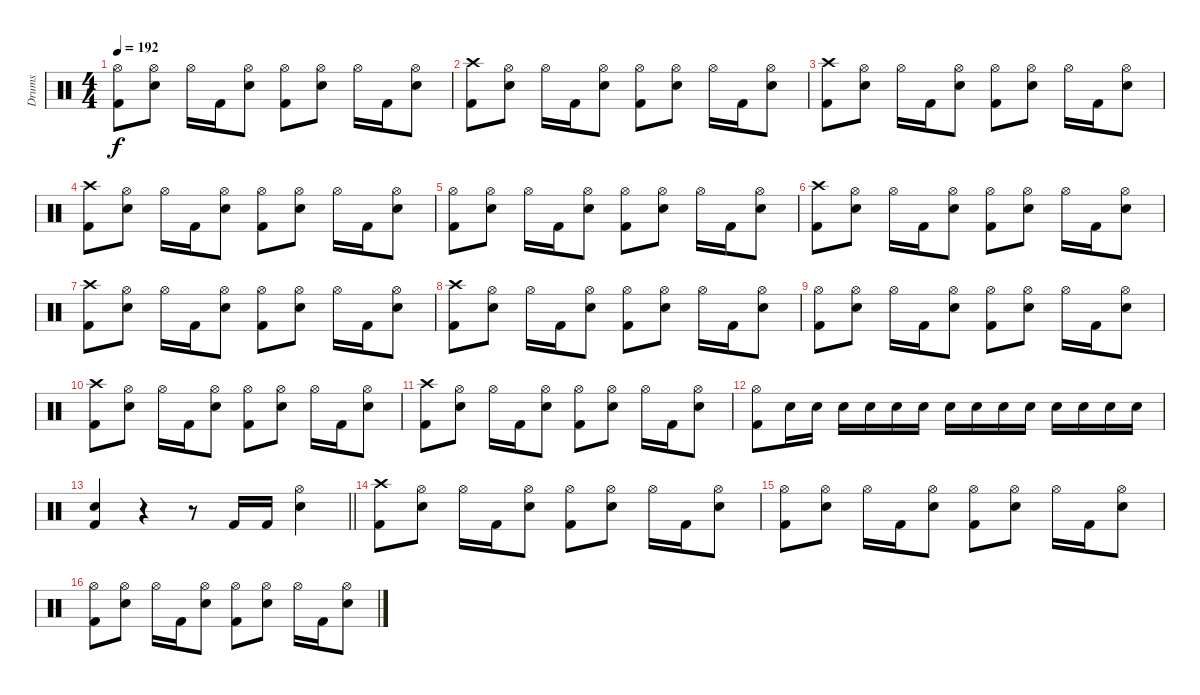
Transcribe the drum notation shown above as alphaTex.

\track ("Drums" "Drums") {instrument percussion}
\staff {score}
\articulation defaults
\ts (4 4)
\tempo 192
\clef neutral
\ks c
("Hi-Hat (open)" "Kick (hit) 2").8{dy f} ("Hi-Hat (open)" "Snare (hit) 2").8 "Hi-Hat (open)".16 "Kick (hit) 2".16 ("Hi-Hat (open)" "Snare (hit) 2").8 ("Hi-Hat (open)" "Kick (hit) 2").8 ("Hi-Hat (open)" "Snare (hit) 2").8 "Hi-Hat (open)".16 "Kick (hit) 2".16 ("Hi-Hat (open)" "Snare (hit) 2").8 |
("Crash high (hit)" "Kick (hit) 2").8 ("Hi-Hat (open)" "Snare (hit) 2").8 "Hi-Hat (open)".16 "Kick (hit) 2".16 ("Hi-Hat (open)" "Snare (hit) 2").8 ("Hi-Hat (open)" "Kick (hit) 2").8 ("Hi-Hat (open)" "Snare (hit) 2").8 "Hi-Hat (open)".16 "Kick (hit) 2".16 ("Hi-Hat (open)" "Snare (hit) 2").8 |
("Crash high (hit)" "Kick (hit) 2").8 ("Hi-Hat (open)" "Snare (hit) 2").8 "Hi-Hat (open)".16 "Kick (hit) 2".16 ("Hi-Hat (open)" "Snare (hit) 2").8 ("Hi-Hat (open)" "Kick (hit) 2").8 ("Hi-Hat (open)" "Snare (hit) 2").8 "Hi-Hat (open)".16 "Kick (hit) 2".16 ("Hi-Hat (open)" "Snare (hit) 2").8 |
("Crash high (hit)" "Kick (hit) 2").8 ("Hi-Hat (open)" "Snare (hit) 2").8 "Hi-Hat (open)".16 "Kick (hit) 2".16 ("Hi-Hat (open)" "Snare (hit) 2").8 ("Hi-Hat (open)" "Kick (hit) 2").8 ("Hi-Hat (open)" "Snare (hit) 2").8 "Hi-Hat (open)".16 "Kick (hit) 2".16 ("Hi-Hat (open)" "Snare (hit) 2").8 |
("Hi-Hat (open)" "Kick (hit) 2").8 ("Hi-Hat (open)" "Snare (hit) 2").8 "Hi-Hat (open)".16 "Kick (hit) 2".16 ("Hi-Hat (open)" "Snare (hit) 2").8 ("Hi-Hat (open)" "Kick (hit) 2").8 ("Hi-Hat (open)" "Snare (hit) 2").8 "Hi-Hat (open)".16 "Kick (hit) 2".16 ("Hi-Hat (open)" "Snare (hit) 2").8 |
("Crash high (hit)" "Kick (hit) 2").8 ("Hi-Hat (open)" "Snare (hit) 2").8 "Hi-Hat (open)".16 "Kick (hit) 2".16 ("Hi-Hat (open)" "Snare (hit) 2").8 ("Hi-Hat (open)" "Kick (hit) 2").8 ("Hi-Hat (open)" "Snare (hit) 2").8 "Hi-Hat (open)".16 "Kick (hit) 2".16 ("Hi-Hat (open)" "Snare (hit) 2").8 |
("Crash high (hit)" "Kick (hit) 2").8 ("Hi-Hat (open)" "Snare (hit) 2").8 "Hi-Hat (open)".16 "Kick (hit) 2".16 ("Hi-Hat (open)" "Snare (hit) 2").8 ("Hi-Hat (open)" "Kick (hit) 2").8 ("Hi-Hat (open)" "Snare (hit) 2").8 "Hi-Hat (open)".16 "Kick (hit) 2".16 ("Hi-Hat (open)" "Snare (hit) 2").8 |
("Crash high (hit)" "Kick (hit) 2").8 ("Hi-Hat (open)" "Snare (hit) 2").8 "Hi-Hat (open)".16 "Kick (hit) 2".16 ("Hi-Hat (open)" "Snare (hit) 2").8 ("Hi-Hat (open)" "Kick (hit) 2").8 ("Hi-Hat (open)" "Snare (hit) 2").8 "Hi-Hat (open)".16 "Kick (hit) 2".16 ("Hi-Hat (open)" "Snare (hit) 2").8 |
("Hi-Hat (open)" "Kick (hit) 2").8 ("Hi-Hat (open)" "Snare (hit) 2").8 "Hi-Hat (open)".16 "Kick (hit) 2".16 ("Hi-Hat (open)" "Snare (hit) 2").8 ("Hi-Hat (open)" "Kick (hit) 2").8 ("Hi-Hat (open)" "Snare (hit) 2").8 "Hi-Hat (open)".16 "Kick (hit) 2".16 ("Hi-Hat (open)" "Snare (hit) 2").8 |
("Crash high (hit)" "Kick (hit) 2").8 ("Hi-Hat (open)" "Snare (hit) 2").8 "Hi-Hat (open)".16 "Kick (hit) 2".16 ("Hi-Hat (open)" "Snare (hit) 2").8 ("Hi-Hat (open)" "Kick (hit) 2").8 ("Hi-Hat (open)" "Snare (hit) 2").8 "Hi-Hat (open)".16 "Kick (hit) 2".16 ("Hi-Hat (open)" "Snare (hit) 2").8 |
("Crash high (hit)" "Kick (hit) 2").8 ("Hi-Hat (open)" "Snare (hit) 2").8 "Hi-Hat (open)".16 "Kick (hit) 2".16 ("Hi-Hat (open)" "Snare (hit) 2").8 ("Hi-Hat (open)" "Kick (hit) 2").8 ("Hi-Hat (open)" "Snare (hit) 2").8 "Hi-Hat (open)".16 "Kick (hit) 2".16 ("Hi-Hat (open)" "Snare (hit) 2").8 |
("Hi-Hat (open)" "Kick (hit) 2").8 "Snare (hit) 2".16 "Snare (hit) 2".16 "Snare (hit) 2".16 "Snare (hit) 2".16 "Snare (hit) 2".16 "Snare (hit) 2".16 "Snare (hit) 2".16 "Snare (hit) 2".16 "Snare (hit) 2".16 "Snare (hit) 2".16 "Snare (hit) 2".16 "Snare (hit) 2".16 "Snare (hit) 2".16 "Snare (hit) 2".16 |
\barLineRight lightlight
("Snare (hit) 2" "Kick (hit) 2").4 r.4 r.8 "Kick (hit) 2".16 "Kick (hit) 2".16 ("Hi-Hat (open)" "Snare (hit) 2").4 |
("Crash high (hit)" "Kick (hit) 2").8 ("Hi-Hat (open)" "Snare (hit) 2").8 "Hi-Hat (open)".16 "Kick (hit) 2".16 ("Hi-Hat (open)" "Snare (hit) 2").8 ("Hi-Hat (open)" "Kick (hit) 2").8 ("Hi-Hat (open)" "Snare (hit) 2").8 "Hi-Hat (open)".16 "Kick (hit) 2".16 ("Hi-Hat (open)" "Snare (hit) 2").8 |
("Hi-Hat (open)" "Kick (hit) 2").8 ("Hi-Hat (open)" "Snare (hit) 2").8 "Hi-Hat (open)".16 "Kick (hit) 2".16 ("Hi-Hat (open)" "Snare (hit) 2").8 ("Hi-Hat (open)" "Kick (hit) 2").8 ("Hi-Hat (open)" "Snare (hit) 2").8 "Hi-Hat (open)".16 "Kick (hit) 2".16 ("Hi-Hat (open)" "Snare (hit) 2").8 |
("Hi-Hat (open)" "Kick (hit) 2").8 ("Hi-Hat (open)" "Snare (hit) 2").8 "Hi-Hat (open)".16 "Kick (hit) 2".16 ("Hi-Hat (open)" "Snare (hit) 2").8 ("Hi-Hat (open)" "Kick (hit) 2").8 ("Hi-Hat (open)" "Snare (hit) 2").8 "Hi-Hat (open)".16 "Kick (hit) 2".16 ("Hi-Hat (open)" "Snare (hit) 2").8
